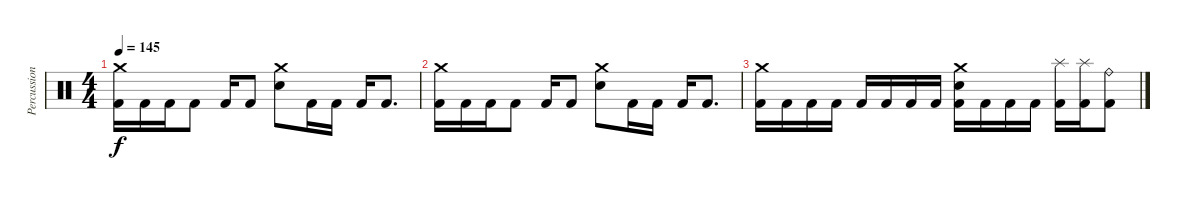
\track ("Percussion" "Percussion") {instrument percussion}
\staff {score}
\articulation defaults
\ts (4 4)
\tempo 145
\clef neutral
\ks c
("Crash medium (hit)" "Kick (hit) 2").16{dy f} "Kick (hit) 2".16 "Kick (hit) 2".16 "Kick (hit) 2".8 "Kick (hit) 2".16 "Kick (hit) 2".8 ("Crash medium (hit)" "Snare (hit) 2").8 "Kick (hit) 2".16 "Kick (hit) 2".16 "Kick (hit) 2".16 "Kick (hit) 2".8{d} |
("Crash medium (hit)" "Kick (hit) 2").16 "Kick (hit) 2".16 "Kick (hit) 2".16 "Kick (hit) 2".8 "Kick (hit) 2".16 "Kick (hit) 2".8 ("Crash medium (hit)" "Snare (hit) 2").8 "Kick (hit) 2".16 "Kick (hit) 2".16 "Kick (hit) 2".16 "Kick (hit) 2".8{d} |
("Crash medium (hit)" "Kick (hit) 2").16 "Kick (hit) 2".16 "Kick (hit) 2".16 "Kick (hit) 2".16 "Kick (hit) 2".16 "Kick (hit) 2".16 "Kick (hit) 2".16 "Kick (hit) 2".16 ("Crash medium (hit)" "Snare (hit) 2" "Kick (hit) 2").16 "Kick (hit) 2".16 "Kick (hit) 2".16 "Kick (hit) 2".16 ("Splash (hit)" "Kick (hit) 2").16 ("Splash (hit)" "Kick (hit) 2").16 ("Ride (bell)" "Kick (hit) 2").8
